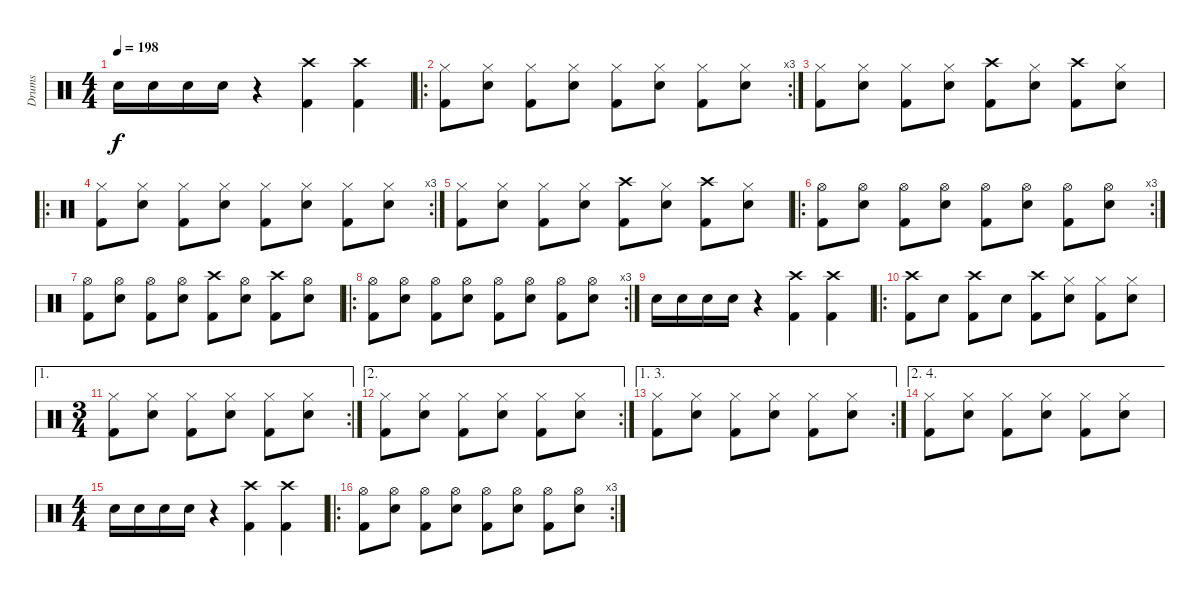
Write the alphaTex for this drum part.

\track ("Drums" "Drums") {instrument percussion}
\staff {score}
\articulation defaults
\ts (4 4)
\tempo 198
\clef neutral
\ks c "Snare (hit) 2".16{dy f} "Snare (hit) 2".16 "Snare (hit) 2".16 "Snare (hit) 2".16
r.4 ("Crash high (hit)" "Kick (hit) 2").4 ("Crash high (hit)" "Kick (hit) 2").4 |
\ro
\rc 3
("Hi-Hat (closed)" "Kick (hit) 2").8 ("Hi-Hat (closed)" "Snare (hit) 2").8 ("Hi-Hat (closed)" "Kick (hit) 2").8 ("Hi-Hat (closed)" "Snare (hit) 2").8 ("Hi-Hat (closed)" "Kick (hit) 2").8 ("Hi-Hat (closed)" "Snare (hit) 2").8 ("Hi-Hat (closed)" "Kick (hit) 2").8 ("Hi-Hat (closed)" "Snare (hit) 2").8 |
("Hi-Hat (closed)" "Kick (hit) 2").8 ("Hi-Hat (closed)" "Snare (hit) 2").8 ("Hi-Hat (closed)" "Kick (hit) 2").8 ("Hi-Hat (closed)" "Snare (hit) 2").8 ("Crash high (hit)" "Kick (hit) 2").8 ("Hi-Hat (closed)" "Snare (hit) 2").8 ("Crash high (hit)" "Kick (hit) 2").8 ("Hi-Hat (closed)" "Snare (hit) 2").8 |
\ro
\rc 3
("Hi-Hat (closed)" "Kick (hit) 2").8 ("Hi-Hat (closed)" "Snare (hit) 2").8 ("Hi-Hat (closed)" "Kick (hit) 2").8 ("Hi-Hat (closed)" "Snare (hit) 2").8 ("Hi-Hat (closed)" "Kick (hit) 2").8 ("Hi-Hat (closed)" "Snare (hit) 2").8 ("Hi-Hat (closed)" "Kick (hit) 2").8 ("Hi-Hat (closed)" "Snare (hit) 2").8 |
("Hi-Hat (closed)" "Kick (hit) 2").8 ("Hi-Hat (closed)" "Snare (hit) 2").8 ("Hi-Hat (closed)" "Kick (hit) 2").8 ("Hi-Hat (closed)" "Snare (hit) 2").8 ("Crash high (hit)" "Kick (hit) 2").8 ("Hi-Hat (closed)" "Snare (hit) 2").8 ("Crash high (hit)" "Kick (hit) 2").8 ("Hi-Hat (closed)" "Snare (hit) 2").8 |
\ro
\rc 3
("Hi-Hat (open)" "Kick (hit) 2").8 ("Hi-Hat (open)" "Snare (hit) 2").8 ("Hi-Hat (open)" "Kick (hit) 2").8 ("Hi-Hat (open)" "Snare (hit) 2").8 ("Hi-Hat (open)" "Kick (hit) 2").8 ("Hi-Hat (open)" "Snare (hit) 2").8 ("Hi-Hat (open)" "Kick (hit) 2").8 ("Hi-Hat (open)" "Snare (hit) 2").8 |
("Hi-Hat (open)" "Kick (hit) 2").8 ("Hi-Hat (open)" "Snare (hit) 2").8 ("Hi-Hat (open)" "Kick (hit) 2").8 ("Hi-Hat (open)" "Snare (hit) 2").8 ("Crash high (hit)" "Kick (hit) 2").8 ("Hi-Hat (open)" "Snare (hit) 2").8 ("Crash high (hit)" "Kick (hit) 2").8 ("Hi-Hat (open)" "Snare (hit) 2").8 |
\ro
\rc 3
("Hi-Hat (open)" "Kick (hit) 2").8 ("Hi-Hat (open)" "Snare (hit) 2").8 ("Hi-Hat (open)" "Kick (hit) 2").8 ("Hi-Hat (open)" "Snare (hit) 2").8 ("Hi-Hat (open)" "Kick (hit) 2").8 ("Hi-Hat (open)" "Snare (hit) 2").8 ("Hi-Hat (open)" "Kick (hit) 2").8 ("Hi-Hat (open)" "Snare (hit) 2").8 |
"Snare (hit) 2".16 "Snare (hit) 2".16 "Snare (hit) 2".16 "Snare (hit) 2".16 r.4 ("Crash high (hit)" "Kick (hit) 2").4 ("Crash high (hit)" "Kick (hit) 2").4 |
\ro
("Crash high (hit)" "Kick (hit) 2").8 "Snare (hit) 2".8 ("Crash high (hit)" "Kick (hit) 2").8 "Snare (hit) 2".8 ("Crash high (hit)" "Kick (hit) 2").8 ("Hi-Hat (closed)" "Snare (hit) 2").8 ("Hi-Hat (closed)" "Kick (hit) 2").8 ("Hi-Hat (closed)" "Snare (hit) 2").8 |
\ae 1
\rc 2
\ts (3 4)
("Hi-Hat (closed)" "Kick (hit) 2").8 ("Hi-Hat (closed)" "Snare (hit) 2").8 ("Hi-Hat (closed)" "Kick (hit) 2").8 ("Hi-Hat (closed)" "Snare (hit) 2").8 ("Hi-Hat (closed)" "Kick (hit) 2").8 ("Hi-Hat (closed)" "Snare (hit) 2").8 |
\ae 2
\rc 2
("Hi-Hat (closed)" "Kick (hit) 2").8 ("Hi-Hat (closed)" "Snare (hit) 2").8 ("Hi-Hat (closed)" "Kick (hit) 2").8 ("Hi-Hat (closed)" "Snare (hit) 2").8 ("Hi-Hat (closed)" "Kick (hit) 2").8 ("Hi-Hat (closed)" "Snare (hit) 2").8 |
\ae (1 3)
\rc 2
("Hi-Hat (closed)" "Kick (hit) 2").8 ("Hi-Hat (closed)" "Snare (hit) 2").8 ("Hi-Hat (closed)" "Kick (hit) 2").8 ("Hi-Hat (closed)" "Snare (hit) 2").8 ("Hi-Hat (closed)" "Kick (hit) 2").8 ("Hi-Hat (closed)" "Snare (hit) 2").8 |
\ae (2 4)
("Hi-Hat (closed)" "Kick (hit) 2").8 ("Hi-Hat (closed)" "Snare (hit) 2").8 ("Hi-Hat (closed)" "Kick (hit) 2").8 ("Hi-Hat (closed)" "Snare (hit) 2").8 ("Hi-Hat (closed)" "Kick (hit) 2").8 ("Hi-Hat (closed)" "Snare (hit) 2").8 |
\ts (4 4)
"Snare (hit) 2".16 "Snare (hit) 2".16 "Snare (hit) 2".16 "Snare (hit) 2".16 r.4 ("Crash high (hit)" "Kick (hit) 2").4 ("Crash high (hit)" "Kick (hit) 2").4 |
\ro
\rc 3
("Hi-Hat (open)" "Kick (hit) 2").8 ("Hi-Hat (open)" "Snare (hit) 2").8 ("Hi-Hat (open)" "Kick (hit) 2").8 ("Hi-Hat (open)" "Snare (hit) 2").8 ("Hi-Hat (open)" "Kick (hit) 2").8 ("Hi-Hat (open)" "Snare (hit) 2").8 ("Hi-Hat (open)" "Kick (hit) 2").8 ("Hi-Hat (open)" "Snare (hit) 2").8
